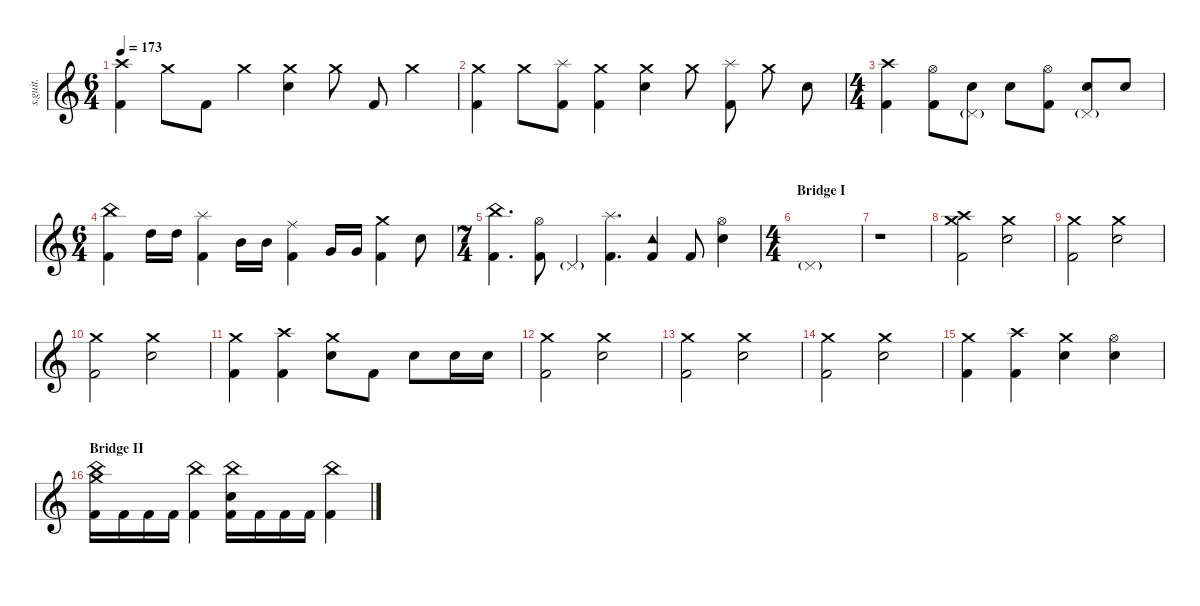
\defaultSystemsLayout 4
\hideDynamics
\bracketExtendMode nobrackets
\track ("II" "s.guit.") {instrument percussion}
\staff {score}
\articulation defaults
\ts (6 4)
\beaming (8 2 2 2 2)
\tempo 173
\clef g2
\ks c
("Kick (hit) 2" "Crash high (hit)").4{lyrics (0 "") lyrics (1 "") lyrics (2 "") lyrics (3 "") lyrics (4 "") dy mf} "Crash medium (hit)".8{lyrics (0 "") lyrics (1 "") lyrics (2 "") lyrics (3 "") lyrics (4 "")} "Kick (hit) 2".8{lyrics (0 "") lyrics (1 "") lyrics (2 "") lyrics (3 "") lyrics (4 "")} "Crash medium (hit)".4{lyrics (0 "") lyrics (1 "") lyrics (2 "") lyrics (3 "") lyrics (4 "")} ("Crash medium (hit)" "Snare (hit) 2").4{lyrics (0 "") lyrics (1 "") lyrics (2 "") lyrics (3 "") lyrics (4 "")} "Crash medium (hit)".8{lyrics (0 "") lyrics (1 "") lyrics (2 "") lyrics (3 "") lyrics (4 "")} "Kick (hit) 2".8{lyrics (0 "") lyrics (1 "") lyrics (2 "") lyrics (3 "") lyrics (4 "")} "Crash medium (hit)".4{lyrics (0 "") lyrics (1 "") lyrics (2 "") lyrics (3 "") lyrics (4 "")} |
("Crash medium (hit)" "Kick (hit) 2").4{lyrics (0 "") lyrics (1 "") lyrics (2 "") lyrics (3 "") lyrics (4 "")} "Crash medium (hit)".8{lyrics (0 "") lyrics (1 "") lyrics (2 "") lyrics (3 "") lyrics (4 "")} ("Kick (hit) 2" "Splash (hit)").8{lyrics (0 "") lyrics (1 "") lyrics (2 "") lyrics (3 "") lyrics (4 "")} ("Kick (hit) 2" "Crash medium (hit)").4{lyrics (0 "") lyrics (1 "") lyrics (2 "") lyrics (3 "") lyrics (4 "")} ("Crash medium (hit)" "Snare (hit) 2").4{lyrics (0 "") lyrics (1 "") lyrics (2 "") lyrics (3 "") lyrics (4 "")} "Crash medium (hit)".8{lyrics (0 "") lyrics (1 "") lyrics (2 "") lyrics (3 "") lyrics (4 "")} ("Kick (hit) 2" "Splash (hit)").8{lyrics (0 "") lyrics (1 "") lyrics (2 "") lyrics (3 "") lyrics (4 "")} "Crash medium (hit)".8{lyrics (0 "") lyrics (1 "") lyrics (2 "") lyrics (3 "") lyrics (4 "")} "Snare (hit) 2".8{lyrics (0 "") lyrics (1 "") lyrics (2 "") lyrics (3 "") lyrics (4 "")} |
\ts (4 4)
\beaming (8 2 2 2 2)
("Kick (hit) 2" "Crash high (hit)").4{lyrics (0 "") lyrics (1 "") lyrics (2 "") lyrics (3 "") lyrics (4 "")} ("Kick (hit) 2" "Hi-Hat (open)").8{lyrics (0 "") lyrics (1 "") lyrics (2 "") lyrics (3 "") lyrics (4 "")} ("Snare (hit) 2" "Pedal Hi-Hat (hit)"{g}).8{lyrics (0 "") lyrics (1 "") lyrics (2 "") lyrics (3 "") lyrics (4 "")} "Snare (hit) 2".8{lyrics (0 "") lyrics (1 "") lyrics (2 "") lyrics (3 "") lyrics (4 "")} ("Kick (hit) 2" "Hi-Hat (open)").8{lyrics (0 "") lyrics (1 "") lyrics (2 "") lyrics (3 "") lyrics (4 "")} ("Snare (hit) 2" "Pedal Hi-Hat (hit)"{g}).8{lyrics (0 "") lyrics (1 "") lyrics (2 "") lyrics (3 "") lyrics (4 "")} "Snare (hit) 2".8{lyrics (0 "") lyrics (1 "") lyrics (2 "") lyrics (3 "") lyrics (4 "")} |
\ts (6 4)
\beaming (8 2 2 2 2)
("Kick (hit) 2" "China (hit)").4{lyrics (0 "") lyrics (1 "") lyrics (2 "") lyrics (3 "") lyrics (4 "")} "High Tom (hit)".16{lyrics (0 "") lyrics (1 "") lyrics (2 "") lyrics (3 "") lyrics (4 "")} "High Tom (hit)".16{lyrics (0 "") lyrics (1 "") lyrics (2 "") lyrics (3 "") lyrics (4 "")} ("Kick (hit) 2" "Splash (hit)").4{lyrics (0 "") lyrics (1 "") lyrics (2 "") lyrics (3 "") lyrics (4 "")} "Mid Tom (hit)".16{lyrics (0 "") lyrics (1 "") lyrics (2 "") lyrics (3 "") lyrics (4 "")} "Mid Tom (hit)".16{lyrics (0 "") lyrics (1 "") lyrics (2 "") lyrics (3 "") lyrics (4 "")} ("Kick (hit) 2" "Ride (middle)").4{lyrics (0 "") lyrics (1 "") lyrics (2 "") lyrics (3 "") lyrics (4 "")} "Very Low Tom (hit)".16{lyrics (0 "") lyrics (1 "") lyrics (2 "") lyrics (3 "") lyrics (4 "")} "Very Low Tom (hit)".16{lyrics (0 "") lyrics (1 "") lyrics (2 "") lyrics (3 "") lyrics (4 "")} ("Kick (hit) 2" "Crash medium (hit)").4{lyrics (0 "") lyrics (1 "") lyrics (2 "") lyrics (3 "") lyrics (4 "")} "Snare (hit) 2".8{lyrics (0 "") lyrics (1 "") lyrics (2 "") lyrics (3 "") lyrics (4 "")} |
\ts (7 4)
\beaming (8 2 2 2 2)
("Kick (hit) 2" "China (hit)").4{d lyrics (0 "") lyrics (1 "") lyrics (2 "") lyrics (3 "") lyrics (4 "")} ("Kick (hit) 2" "Hi-Hat (open)").8{lyrics (0 "") lyrics (1 "") lyrics (2 "") lyrics (3 "") lyrics (4 "")} "Pedal Hi-Hat (hit)"{g}.4{lyrics (0 "") lyrics (1 "") lyrics (2 "") lyrics (3 "") lyrics (4 "") dy pp} ("Kick (hit) 2" "Splash (hit)").4{d lyrics (0 "") lyrics (1 "") lyrics (2 "") lyrics (3 "") lyrics (4 "") dy mf} ("Tambourine (hit)" "Kick (hit) 2").4{lyrics (0 "") lyrics (1 "") lyrics (2 "") lyrics (3 "") lyrics (4 "")} "Kick (hit) 2".8{lyrics (0 "") lyrics (1 "") lyrics (2 "") lyrics (3 "") lyrics (4 "")} ("Snare (hit) 2" "Hi-Hat (open)").4{lyrics (0 "") lyrics (1 "") lyrics (2 "") lyrics (3 "") lyrics (4 "")} |
\ts (4 4)
\beaming (8 2 2 2 2)
\section ("" "Bridge I")
"Pedal Hi-Hat (hit)"{g}.1{lyrics (0 "") lyrics (1 "") lyrics (2 "") lyrics (3 "") lyrics (4 "") dy pp} |
r.1 |
("Kick (hit) 2" "Crash high (hit)" "Crash medium (hit)").2{lyrics (0 "") lyrics (1 "") lyrics (2 "") lyrics (3 "") lyrics (4 "") dy mf} ("Snare (hit) 2" "Crash medium (hit)").2{lyrics (0 "") lyrics (1 "") lyrics (2 "") lyrics (3 "") lyrics (4 "")} |
("Kick (hit) 2" "Crash medium (hit)").2{lyrics (0 "") lyrics (1 "") lyrics (2 "") lyrics (3 "") lyrics (4 "")} ("Crash medium (hit)" "Snare (hit) 2").2{lyrics (0 "") lyrics (1 "") lyrics (2 "") lyrics (3 "") lyrics (4 "")} |
("Kick (hit) 2" "Crash medium (hit)").2{lyrics (0 "") lyrics (1 "") lyrics (2 "") lyrics (3 "") lyrics (4 "")} ("Crash medium (hit)" "Snare (hit) 2").2{lyrics (0 "") lyrics (1 "") lyrics (2 "") lyrics (3 "") lyrics (4 "")} |
("Kick (hit) 2" "Crash medium (hit)").4{lyrics (0 "") lyrics (1 "") lyrics (2 "") lyrics (3 "") lyrics (4 "")} ("Kick (hit) 2" "Crash high (hit)").4{lyrics (0 "") lyrics (1 "") lyrics (2 "") lyrics (3 "") lyrics (4 "")} ("Crash medium (hit)" "Snare (hit) 2").8{lyrics (0 "") lyrics (1 "") lyrics (2 "") lyrics (3 "") lyrics (4 "")} "Kick (hit) 2".8{lyrics (0 "") lyrics (1 "") lyrics (2 "") lyrics (3 "") lyrics (4 "")} "Snare (hit) 2".8{lyrics (0 "") lyrics (1 "") lyrics (2 "") lyrics (3 "") lyrics (4 "")} "Snare (hit) 2".16{lyrics (0 "") lyrics (1 "") lyrics (2 "") lyrics (3 "") lyrics (4 "")} "Snare (hit) 2".16{lyrics (0 "") lyrics (1 "") lyrics (2 "") lyrics (3 "") lyrics (4 "")} |
("Kick (hit) 2" "Crash medium (hit)").2{lyrics (0 "") lyrics (1 "") lyrics (2 "") lyrics (3 "") lyrics (4 "")} ("Snare (hit) 2" "Crash medium (hit)").2{lyrics (0 "") lyrics (1 "") lyrics (2 "") lyrics (3 "") lyrics (4 "")} |
("Kick (hit) 2" "Crash medium (hit)").2{lyrics (0 "") lyrics (1 "") lyrics (2 "") lyrics (3 "") lyrics (4 "")} ("Crash medium (hit)" "Snare (hit) 2").2{lyrics (0 "") lyrics (1 "") lyrics (2 "") lyrics (3 "") lyrics (4 "")} |
("Kick (hit) 2" "Crash medium (hit)").2{lyrics (0 "") lyrics (1 "") lyrics (2 "") lyrics (3 "") lyrics (4 "")} ("Crash medium (hit)" "Snare (hit) 2").2{lyrics (0 "") lyrics (1 "") lyrics (2 "") lyrics (3 "") lyrics (4 "")} |
("Kick (hit) 2" "Crash medium (hit)").4{lyrics (0 "") lyrics (1 "") lyrics (2 "") lyrics (3 "") lyrics (4 "")} ("Kick (hit) 2" "Crash high (hit)").4{lyrics (0 "") lyrics (1 "") lyrics (2 "") lyrics (3 "") lyrics (4 "")} ("Crash medium (hit)" "Snare (hit) 2").4{lyrics (0 "") lyrics (1 "") lyrics (2 "") lyrics (3 "") lyrics (4 "")} ("Snare (hit) 2" "Hi-Hat (open)").4{lyrics (0 "") lyrics (1 "") lyrics (2 "") lyrics (3 "") lyrics (4 "")} |
\section ("" "Bridge II")
("Kick (hit) 2" "Crash medium (hit)" "China (hit)").16{lyrics (0 "") lyrics (1 "") lyrics (2 "") lyrics (3 "") lyrics (4 "")} "Kick (hit) 2".16{lyrics (0 "") lyrics (1 "") lyrics (2 "") lyrics (3 "") lyrics (4 "")} "Kick (hit) 2".16{lyrics (0 "") lyrics (1 "") lyrics (2 "") lyrics (3 "") lyrics (4 "")} "Kick (hit) 2".16{lyrics (0 "") lyrics (1 "") lyrics (2 "") lyrics (3 "") lyrics (4 "")} ("Kick (hit) 2" "China (hit)").4{lyrics (0 "") lyrics (1 "") lyrics (2 "") lyrics (3 "") lyrics (4 "")} ("Kick (hit) 2" "China (hit)" "Snare (hit) 2").16{lyrics (0 "") lyrics (1 "") lyrics (2 "") lyrics (3 "") lyrics (4 "")} "Kick (hit) 2".16{lyrics (0 "") lyrics (1 "") lyrics (2 "") lyrics (3 "") lyrics (4 "")} "Kick (hit) 2".16{lyrics (0 "") lyrics (1 "") lyrics (2 "") lyrics (3 "") lyrics (4 "")} "Kick (hit) 2".16{lyrics (0 "") lyrics (1 "") lyrics (2 "") lyrics (3 "") lyrics (4 "")} ("Kick (hit) 2" "China (hit)").4{lyrics (0 "") lyrics (1 "") lyrics (2 "") lyrics (3 "") lyrics (4 "")}
